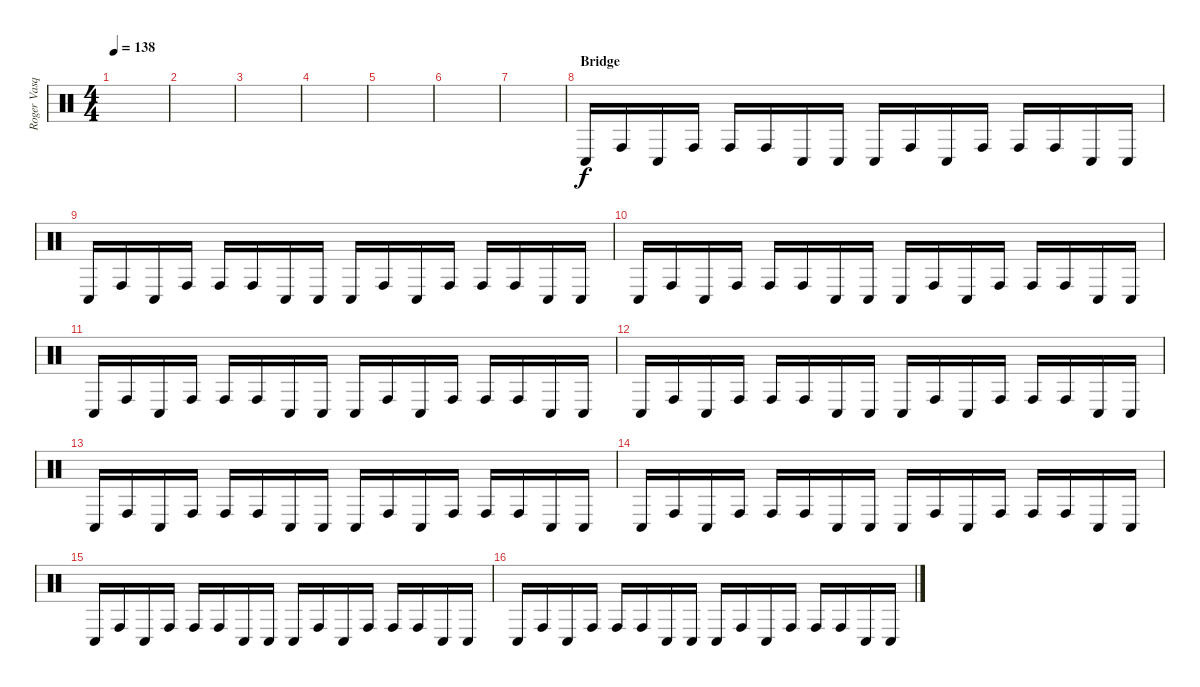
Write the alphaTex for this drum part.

\track ("Roger Vasquez - Percussion" "Roger Vasq") {instrument percussion}
\staff {score}
\articulation defaults
\ts (4 4)
\tempo 138
\clef neutral
\ks c
|
|
|
|
|
|
|
\section ("" "Bridge")
"Conga low (hit)".16 "Conga high (hit)".16 "Conga low (hit)".16 "Conga high (hit)".16 "Conga high (hit)".16 "Conga high (hit)".16 "Conga low (hit)".16 "Conga low (hit)".16 "Conga low (hit)".16 "Conga high (hit)".16 "Conga low (hit)".16 "Conga high (hit)".16 "Conga high (hit)".16 "Conga high (hit)".16 "Conga low (hit)".16 "Conga low (hit)".16 |
"Conga low (hit)".16 "Conga high (hit)".16 "Conga low (hit)".16 "Conga high (hit)".16 "Conga high (hit)".16 "Conga high (hit)".16 "Conga low (hit)".16 "Conga low (hit)".16 "Conga low (hit)".16 "Conga high (hit)".16 "Conga low (hit)".16 "Conga high (hit)".16 "Conga high (hit)".16 "Conga high (hit)".16 "Conga low (hit)".16 "Conga low (hit)".16 |
"Conga low (hit)".16 "Conga high (hit)".16 "Conga low (hit)".16 "Conga high (hit)".16 "Conga high (hit)".16 "Conga high (hit)".16 "Conga low (hit)".16 "Conga low (hit)".16 "Conga low (hit)".16 "Conga high (hit)".16 "Conga low (hit)".16 "Conga high (hit)".16 "Conga high (hit)".16 "Conga high (hit)".16 "Conga low (hit)".16 "Conga low (hit)".16 |
"Conga low (hit)".16 "Conga high (hit)".16 "Conga low (hit)".16 "Conga high (hit)".16 "Conga high (hit)".16 "Conga high (hit)".16 "Conga low (hit)".16 "Conga low (hit)".16 "Conga low (hit)".16 "Conga high (hit)".16 "Conga low (hit)".16 "Conga high (hit)".16 "Conga high (hit)".16 "Conga high (hit)".16 "Conga low (hit)".16 "Conga low (hit)".16 |
"Conga low (hit)".16 "Conga high (hit)".16 "Conga low (hit)".16 "Conga high (hit)".16 "Conga high (hit)".16 "Conga high (hit)".16 "Conga low (hit)".16 "Conga low (hit)".16 "Conga low (hit)".16 "Conga high (hit)".16 "Conga low (hit)".16 "Conga high (hit)".16 "Conga high (hit)".16 "Conga high (hit)".16 "Conga low (hit)".16 "Conga low (hit)".16 |
"Conga low (hit)".16 "Conga high (hit)".16 "Conga low (hit)".16 "Conga high (hit)".16 "Conga high (hit)".16 "Conga high (hit)".16 "Conga low (hit)".16 "Conga low (hit)".16 "Conga low (hit)".16 "Conga high (hit)".16 "Conga low (hit)".16 "Conga high (hit)".16 "Conga high (hit)".16 "Conga high (hit)".16 "Conga low (hit)".16 "Conga low (hit)".16 |
"Conga low (hit)".16 "Conga high (hit)".16 "Conga low (hit)".16 "Conga high (hit)".16 "Conga high (hit)".16 "Conga high (hit)".16 "Conga low (hit)".16 "Conga low (hit)".16 "Conga low (hit)".16 "Conga high (hit)".16 "Conga low (hit)".16 "Conga high (hit)".16 "Conga high (hit)".16 "Conga high (hit)".16 "Conga low (hit)".16 "Conga low (hit)".16 |
"Conga low (hit)".16 "Conga high (hit)".16 "Conga low (hit)".16 "Conga high (hit)".16 "Conga high (hit)".16 "Conga high (hit)".16 "Conga low (hit)".16 "Conga low (hit)".16 "Conga low (hit)".16 "Conga high (hit)".16 "Conga low (hit)".16 "Conga high (hit)".16 "Conga high (hit)".16 "Conga high (hit)".16 "Conga low (hit)".16 "Conga low (hit)".16 |
"Conga low (hit)".16 "Conga high (hit)".16 "Conga low (hit)".16 "Conga high (hit)".16 "Conga high (hit)".16 "Conga high (hit)".16 "Conga low (hit)".16 "Conga low (hit)".16 "Conga low (hit)".16 "Conga high (hit)".16 "Conga low (hit)".16 "Conga high (hit)".16 "Conga high (hit)".16 "Conga high (hit)".16 "Conga low (hit)".16 "Conga low (hit)".16
